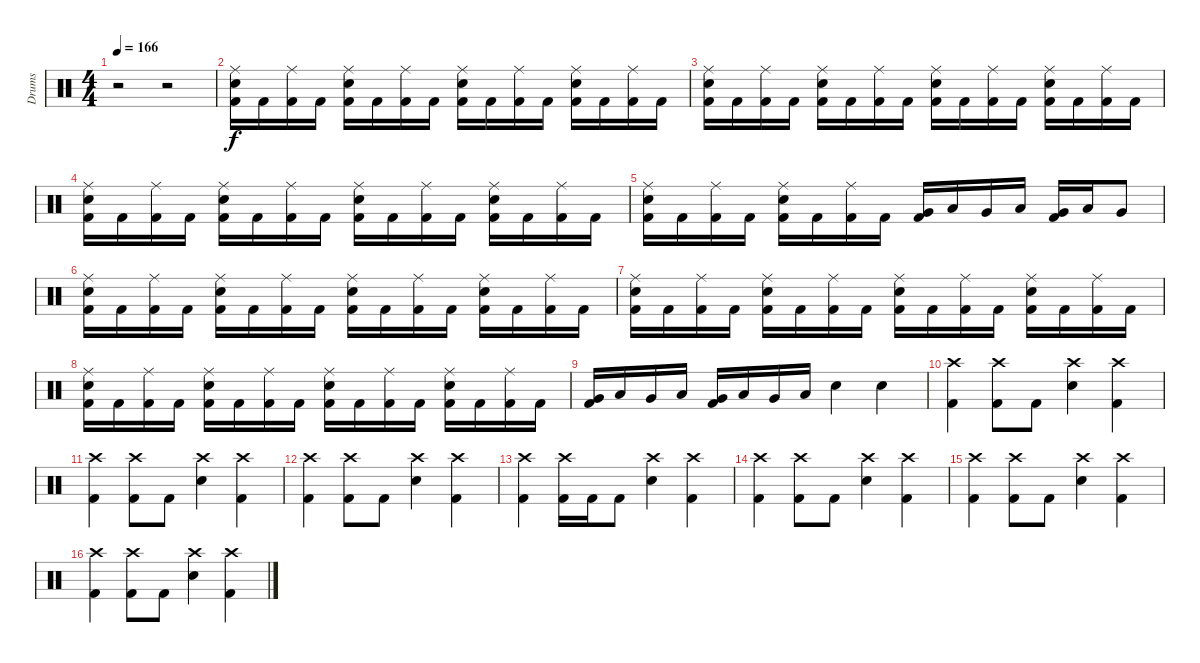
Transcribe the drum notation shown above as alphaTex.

\track ("Drums" "Drums") {instrument percussion}
\staff {score}
\articulation defaults
\ts (4 4)
\tempo 166
\clef neutral
\ks c
r.2{dy f} r.2 |
("Ride (middle)" "Snare (hit) 2" "Kick (hit) 2").16 "Kick (hit) 2".16 ("Ride (middle)" "Kick (hit) 2").16 "Kick (hit) 2".16 ("Ride (middle)" "Snare (hit) 2" "Kick (hit) 2").16 "Kick (hit) 2".16 ("Ride (middle)" "Kick (hit) 2").16 "Kick (hit) 2".16 ("Ride (middle)" "Snare (hit) 2" "Kick (hit) 2").16 "Kick (hit) 2".16 ("Ride (middle)" "Kick (hit) 2").16 "Kick (hit) 2".16 ("Ride (middle)" "Snare (hit) 2" "Kick (hit) 2").16 "Kick (hit) 2".16 ("Ride (middle)" "Kick (hit) 2").16 "Kick (hit) 2".16 |
("Ride (middle)" "Snare (hit) 2" "Kick (hit) 2").16 "Kick (hit) 2".16 ("Ride (middle)" "Kick (hit) 2").16 "Kick (hit) 2".16 ("Ride (middle)" "Snare (hit) 2" "Kick (hit) 2").16 "Kick (hit) 2".16 ("Ride (middle)" "Kick (hit) 2").16 "Kick (hit) 2".16 ("Ride (middle)" "Snare (hit) 2" "Kick (hit) 2").16 "Kick (hit) 2".16 ("Ride (middle)" "Kick (hit) 2").16 "Kick (hit) 2".16 ("Ride (middle)" "Snare (hit) 2" "Kick (hit) 2").16 "Kick (hit) 2".16 ("Ride (middle)" "Kick (hit) 2").16 "Kick (hit) 2".16 |
("Ride (middle)" "Snare (hit) 2" "Kick (hit) 2").16 "Kick (hit) 2".16 ("Ride (middle)" "Kick (hit) 2").16 "Kick (hit) 2".16 ("Ride (middle)" "Snare (hit) 2" "Kick (hit) 2").16 "Kick (hit) 2".16 ("Ride (middle)" "Kick (hit) 2").16 "Kick (hit) 2".16 ("Ride (middle)" "Snare (hit) 2" "Kick (hit) 2").16 "Kick (hit) 2".16 ("Ride (middle)" "Kick (hit) 2").16 "Kick (hit) 2".16 ("Ride (middle)" "Snare (hit) 2" "Kick (hit) 2").16 "Kick (hit) 2".16 ("Ride (middle)" "Kick (hit) 2").16 "Kick (hit) 2".16 |
("Ride (middle)" "Snare (hit) 2" "Kick (hit) 2").16 "Kick (hit) 2".16 ("Ride (middle)" "Kick (hit) 2").16 "Kick (hit) 2".16 ("Ride (middle)" "Snare (hit) 2" "Kick (hit) 2").16 "Kick (hit) 2".16 ("Ride (middle)" "Kick (hit) 2").16 "Kick (hit) 2".16 ("Very Low Tom (hit)" "Kick (hit) 2").16 "Low Tom (hit)".16 "Very Low Tom (hit)".16 "Low Tom (hit)".16 ("Very Low Tom (hit)" "Kick (hit) 2").16 "Low Tom (hit)".16 "Very Low Tom (hit)".8 |
("Ride (middle)" "Snare (hit) 2" "Kick (hit) 2").16 "Kick (hit) 2".16 ("Ride (middle)" "Kick (hit) 2").16 "Kick (hit) 2".16 ("Ride (middle)" "Snare (hit) 2" "Kick (hit) 2").16 "Kick (hit) 2".16 ("Ride (middle)" "Kick (hit) 2").16 "Kick (hit) 2".16 ("Ride (middle)" "Snare (hit) 2" "Kick (hit) 2").16 "Kick (hit) 2".16 ("Ride (middle)" "Kick (hit) 2").16 "Kick (hit) 2".16 ("Ride (middle)" "Snare (hit) 2" "Kick (hit) 2").16 "Kick (hit) 2".16 ("Ride (middle)" "Kick (hit) 2").16 "Kick (hit) 2".16 |
("Ride (middle)" "Snare (hit) 2" "Kick (hit) 2").16 "Kick (hit) 2".16 ("Ride (middle)" "Kick (hit) 2").16 "Kick (hit) 2".16 ("Ride (middle)" "Snare (hit) 2" "Kick (hit) 2").16 "Kick (hit) 2".16 ("Ride (middle)" "Kick (hit) 2").16 "Kick (hit) 2".16 ("Ride (middle)" "Snare (hit) 2" "Kick (hit) 2").16 "Kick (hit) 2".16 ("Ride (middle)" "Kick (hit) 2").16 "Kick (hit) 2".16 ("Ride (middle)" "Snare (hit) 2" "Kick (hit) 2").16 "Kick (hit) 2".16 ("Ride (middle)" "Kick (hit) 2").16 "Kick (hit) 2".16 |
("Ride (middle)" "Snare (hit) 2" "Kick (hit) 2").16 "Kick (hit) 2".16 ("Ride (middle)" "Kick (hit) 2").16 "Kick (hit) 2".16 ("Ride (middle)" "Snare (hit) 2" "Kick (hit) 2").16 "Kick (hit) 2".16 ("Ride (middle)" "Kick (hit) 2").16 "Kick (hit) 2".16 ("Ride (middle)" "Snare (hit) 2" "Kick (hit) 2").16 "Kick (hit) 2".16 ("Ride (middle)" "Kick (hit) 2").16 "Kick (hit) 2".16 ("Ride (middle)" "Snare (hit) 2" "Kick (hit) 2").16 "Kick (hit) 2".16 ("Ride (middle)" "Kick (hit) 2").16 "Kick (hit) 2".16 |
("Very Low Tom (hit)" "Kick (hit) 2").16 "Low Tom (hit)".16 "Very Low Tom (hit)".16 "Low Tom (hit)".16 ("Very Low Tom (hit)" "Kick (hit) 2").16 "Low Tom (hit)".16 "Very Low Tom (hit)".16 "Low Tom (hit)".16 "Snare (hit) 2".4 "Snare (hit) 2".4 |
("Crash high (hit)" "Kick (hit) 2").4 ("Crash high (hit)" "Kick (hit) 2").8 "Kick (hit) 2".8 ("Crash high (hit)" "Snare (hit) 2").4 ("Crash high (hit)" "Kick (hit) 2").4 |
("Crash high (hit)" "Kick (hit) 2").4 ("Crash high (hit)" "Kick (hit) 2").8 "Kick (hit) 2".8 ("Crash high (hit)" "Snare (hit) 2").4 ("Crash high (hit)" "Kick (hit) 2").4 |
("Crash high (hit)" "Kick (hit) 2").4 ("Crash high (hit)" "Kick (hit) 2").8 "Kick (hit) 2".8 ("Crash high (hit)" "Snare (hit) 2").4 ("Crash high (hit)" "Kick (hit) 2").4 |
("Crash high (hit)" "Kick (hit) 2").4 ("Crash high (hit)" "Kick (hit) 2").16 "Kick (hit) 2".16 "Kick (hit) 2".8 ("Crash high (hit)" "Snare (hit) 2").4 ("Crash high (hit)" "Kick (hit) 2").4 |
("Crash high (hit)" "Kick (hit) 2").4 ("Crash high (hit)" "Kick (hit) 2").8 "Kick (hit) 2".8 ("Crash high (hit)" "Snare (hit) 2").4 ("Crash high (hit)" "Kick (hit) 2").4 |
("Crash high (hit)" "Kick (hit) 2").4 ("Crash high (hit)" "Kick (hit) 2").8 "Kick (hit) 2".8 ("Crash high (hit)" "Snare (hit) 2").4 ("Crash high (hit)" "Kick (hit) 2").4 |
("Crash high (hit)" "Kick (hit) 2").4 ("Crash high (hit)" "Kick (hit) 2").8 "Kick (hit) 2".8 ("Crash high (hit)" "Snare (hit) 2").4 ("Crash high (hit)" "Kick (hit) 2").4
